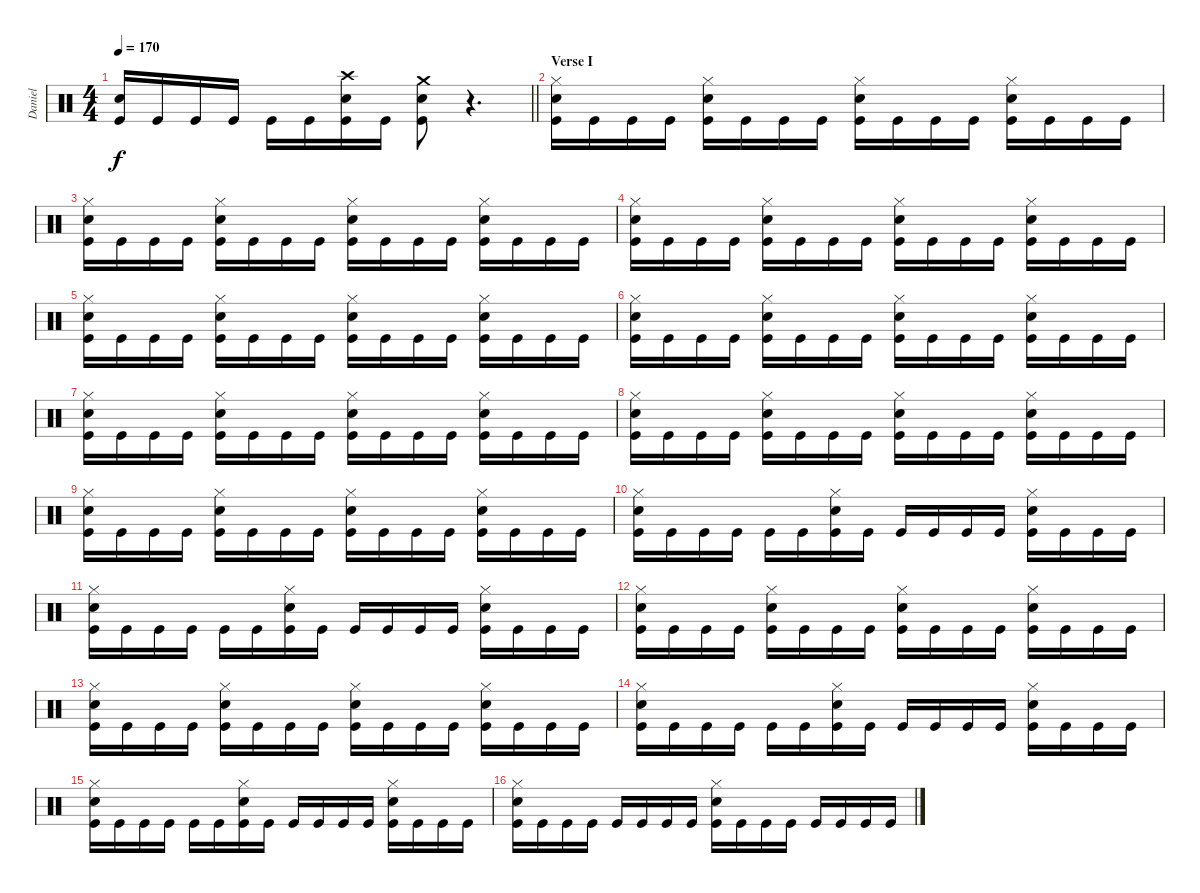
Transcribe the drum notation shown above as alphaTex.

\track ("Daniel" "Daniel") {instrument percussion}
\staff {score}
\articulation defaults
\ts (4 4)
\tempo 170
\clef neutral
\barLineRight lightlight
\ks c
("Kick (hit)" "Snare (hit) 2").16{dy f} "Kick (hit)".16 "Kick (hit)".16 "Kick (hit)".16 "Kick (hit)".16 "Kick (hit)".16 ("Kick (hit)" "Snare (hit) 2" "Crash high (hit)").16 "Kick (hit)".16 ("Kick (hit)" "Snare (hit) 2" "Crash medium (hit)").8 r.4{d} |
\section ("" "Verse I")
("Kick (hit)" "Snare (hit) 2" "Hi-Hat (closed)").16 "Kick (hit)".16 "Kick (hit)".16 "Kick (hit)".16 ("Kick (hit)" "Snare (hit) 2" "Hi-Hat (closed)").16 "Kick (hit)".16 "Kick (hit)".16 "Kick (hit)".16 ("Kick (hit)" "Snare (hit) 2" "Hi-Hat (closed)").16 "Kick (hit)".16 "Kick (hit)".16 "Kick (hit)".16 ("Kick (hit)" "Snare (hit) 2" "Hi-Hat (closed)").16 "Kick (hit)".16 "Kick (hit)".16 "Kick (hit)".16 |
("Kick (hit)" "Snare (hit) 2" "Hi-Hat (closed)").16 "Kick (hit)".16 "Kick (hit)".16 "Kick (hit)".16 ("Kick (hit)" "Snare (hit) 2" "Hi-Hat (closed)").16 "Kick (hit)".16 "Kick (hit)".16 "Kick (hit)".16 ("Kick (hit)" "Snare (hit) 2" "Hi-Hat (closed)").16 "Kick (hit)".16 "Kick (hit)".16 "Kick (hit)".16 ("Kick (hit)" "Snare (hit) 2" "Hi-Hat (closed)").16 "Kick (hit)".16 "Kick (hit)".16 "Kick (hit)".16 |
("Kick (hit)" "Snare (hit) 2" "Hi-Hat (closed)").16 "Kick (hit)".16 "Kick (hit)".16 "Kick (hit)".16 ("Kick (hit)" "Snare (hit) 2" "Hi-Hat (closed)").16 "Kick (hit)".16 "Kick (hit)".16 "Kick (hit)".16 ("Kick (hit)" "Snare (hit) 2" "Hi-Hat (closed)").16 "Kick (hit)".16 "Kick (hit)".16 "Kick (hit)".16 ("Kick (hit)" "Snare (hit) 2" "Hi-Hat (closed)").16 "Kick (hit)".16 "Kick (hit)".16 "Kick (hit)".16 |
("Kick (hit)" "Snare (hit) 2" "Hi-Hat (closed)").16 "Kick (hit)".16 "Kick (hit)".16 "Kick (hit)".16 ("Kick (hit)" "Snare (hit) 2" "Hi-Hat (closed)").16 "Kick (hit)".16 "Kick (hit)".16 "Kick (hit)".16 ("Kick (hit)" "Snare (hit) 2" "Hi-Hat (closed)").16 "Kick (hit)".16 "Kick (hit)".16 "Kick (hit)".16 ("Kick (hit)" "Snare (hit) 2" "Hi-Hat (closed)").16 "Kick (hit)".16 "Kick (hit)".16 "Kick (hit)".16 |
("Kick (hit)" "Snare (hit) 2" "Hi-Hat (closed)").16 "Kick (hit)".16 "Kick (hit)".16 "Kick (hit)".16 ("Kick (hit)" "Snare (hit) 2" "Hi-Hat (closed)").16 "Kick (hit)".16 "Kick (hit)".16 "Kick (hit)".16 ("Kick (hit)" "Snare (hit) 2" "Hi-Hat (closed)").16 "Kick (hit)".16 "Kick (hit)".16 "Kick (hit)".16 ("Kick (hit)" "Snare (hit) 2" "Hi-Hat (closed)").16 "Kick (hit)".16 "Kick (hit)".16 "Kick (hit)".16 |
("Kick (hit)" "Snare (hit) 2" "Hi-Hat (closed)").16 "Kick (hit)".16 "Kick (hit)".16 "Kick (hit)".16 ("Kick (hit)" "Snare (hit) 2" "Hi-Hat (closed)").16 "Kick (hit)".16 "Kick (hit)".16 "Kick (hit)".16 ("Kick (hit)" "Snare (hit) 2" "Hi-Hat (closed)").16 "Kick (hit)".16 "Kick (hit)".16 "Kick (hit)".16 ("Kick (hit)" "Snare (hit) 2" "Hi-Hat (closed)").16 "Kick (hit)".16 "Kick (hit)".16 "Kick (hit)".16 |
("Kick (hit)" "Snare (hit) 2" "Hi-Hat (closed)").16 "Kick (hit)".16 "Kick (hit)".16 "Kick (hit)".16 ("Kick (hit)" "Snare (hit) 2" "Hi-Hat (closed)").16 "Kick (hit)".16 "Kick (hit)".16 "Kick (hit)".16 ("Kick (hit)" "Snare (hit) 2" "Hi-Hat (closed)").16 "Kick (hit)".16 "Kick (hit)".16 "Kick (hit)".16 ("Kick (hit)" "Snare (hit) 2" "Hi-Hat (closed)").16 "Kick (hit)".16 "Kick (hit)".16 "Kick (hit)".16 |
("Kick (hit)" "Snare (hit) 2" "Hi-Hat (closed)").16 "Kick (hit)".16 "Kick (hit)".16 "Kick (hit)".16 ("Kick (hit)" "Snare (hit) 2" "Hi-Hat (closed)").16 "Kick (hit)".16 "Kick (hit)".16 "Kick (hit)".16 ("Kick (hit)" "Snare (hit) 2" "Hi-Hat (closed)").16 "Kick (hit)".16 "Kick (hit)".16 "Kick (hit)".16 ("Kick (hit)" "Snare (hit) 2" "Hi-Hat (closed)").16 "Kick (hit)".16 "Kick (hit)".16 "Kick (hit)".16 |
("Kick (hit)" "Snare (hit) 2" "Hi-Hat (closed)").16 "Kick (hit)".16 "Kick (hit)".16 "Kick (hit)".16 "Kick (hit)".16 "Kick (hit)".16 ("Kick (hit)" "Snare (hit) 2" "Hi-Hat (closed)").16 "Kick (hit)".16 "Kick (hit)".16 "Kick (hit)".16 "Kick (hit)".16 "Kick (hit)".16 ("Kick (hit)" "Snare (hit) 2" "Hi-Hat (closed)").16 "Kick (hit)".16 "Kick (hit)".16 "Kick (hit)".16 |
("Kick (hit)" "Snare (hit) 2" "Hi-Hat (closed)").16 "Kick (hit)".16 "Kick (hit)".16 "Kick (hit)".16 "Kick (hit)".16 "Kick (hit)".16 ("Kick (hit)" "Snare (hit) 2" "Hi-Hat (closed)").16 "Kick (hit)".16 "Kick (hit)".16 "Kick (hit)".16 "Kick (hit)".16 "Kick (hit)".16 ("Kick (hit)" "Snare (hit) 2" "Hi-Hat (closed)").16 "Kick (hit)".16 "Kick (hit)".16 "Kick (hit)".16 |
("Kick (hit)" "Snare (hit) 2" "Hi-Hat (closed)").16 "Kick (hit)".16 "Kick (hit)".16 "Kick (hit)".16 ("Kick (hit)" "Snare (hit) 2" "Hi-Hat (closed)").16 "Kick (hit)".16 "Kick (hit)".16 "Kick (hit)".16 ("Kick (hit)" "Snare (hit) 2" "Hi-Hat (closed)").16 "Kick (hit)".16 "Kick (hit)".16 "Kick (hit)".16 ("Kick (hit)" "Snare (hit) 2" "Hi-Hat (closed)").16 "Kick (hit)".16 "Kick (hit)".16 "Kick (hit)".16 |
("Kick (hit)" "Snare (hit) 2" "Hi-Hat (closed)").16 "Kick (hit)".16 "Kick (hit)".16 "Kick (hit)".16 ("Kick (hit)" "Snare (hit) 2" "Hi-Hat (closed)").16 "Kick (hit)".16 "Kick (hit)".16 "Kick (hit)".16 ("Kick (hit)" "Snare (hit) 2" "Hi-Hat (closed)").16 "Kick (hit)".16 "Kick (hit)".16 "Kick (hit)".16 ("Kick (hit)" "Snare (hit) 2" "Hi-Hat (closed)").16 "Kick (hit)".16 "Kick (hit)".16 "Kick (hit)".16 |
("Kick (hit)" "Snare (hit) 2" "Hi-Hat (closed)").16 "Kick (hit)".16 "Kick (hit)".16 "Kick (hit)".16 "Kick (hit)".16 "Kick (hit)".16 ("Kick (hit)" "Snare (hit) 2" "Hi-Hat (closed)").16 "Kick (hit)".16 "Kick (hit)".16 "Kick (hit)".16 "Kick (hit)".16 "Kick (hit)".16 ("Kick (hit)" "Snare (hit) 2" "Hi-Hat (closed)").16 "Kick (hit)".16 "Kick (hit)".16 "Kick (hit)".16 |
("Kick (hit)" "Snare (hit) 2" "Hi-Hat (closed)").16 "Kick (hit)".16 "Kick (hit)".16 "Kick (hit)".16 "Kick (hit)".16 "Kick (hit)".16 ("Kick (hit)" "Snare (hit) 2" "Hi-Hat (closed)").16 "Kick (hit)".16 "Kick (hit)".16 "Kick (hit)".16 "Kick (hit)".16 "Kick (hit)".16 ("Kick (hit)" "Snare (hit) 2" "Hi-Hat (closed)").16 "Kick (hit)".16 "Kick (hit)".16 "Kick (hit)".16 |
("Kick (hit)" "Snare (hit) 2" "Hi-Hat (closed)").16 "Kick (hit)".16 "Kick (hit)".16 "Kick (hit)".16 "Kick (hit)".16 "Kick (hit)".16 "Kick (hit)".16 "Kick (hit)".16 ("Kick (hit)" "Snare (hit) 2" "Hi-Hat (closed)").16 "Kick (hit)".16 "Kick (hit)".16 "Kick (hit)".16 "Kick (hit)".16 "Kick (hit)".16 "Kick (hit)".16 "Kick (hit)".16
